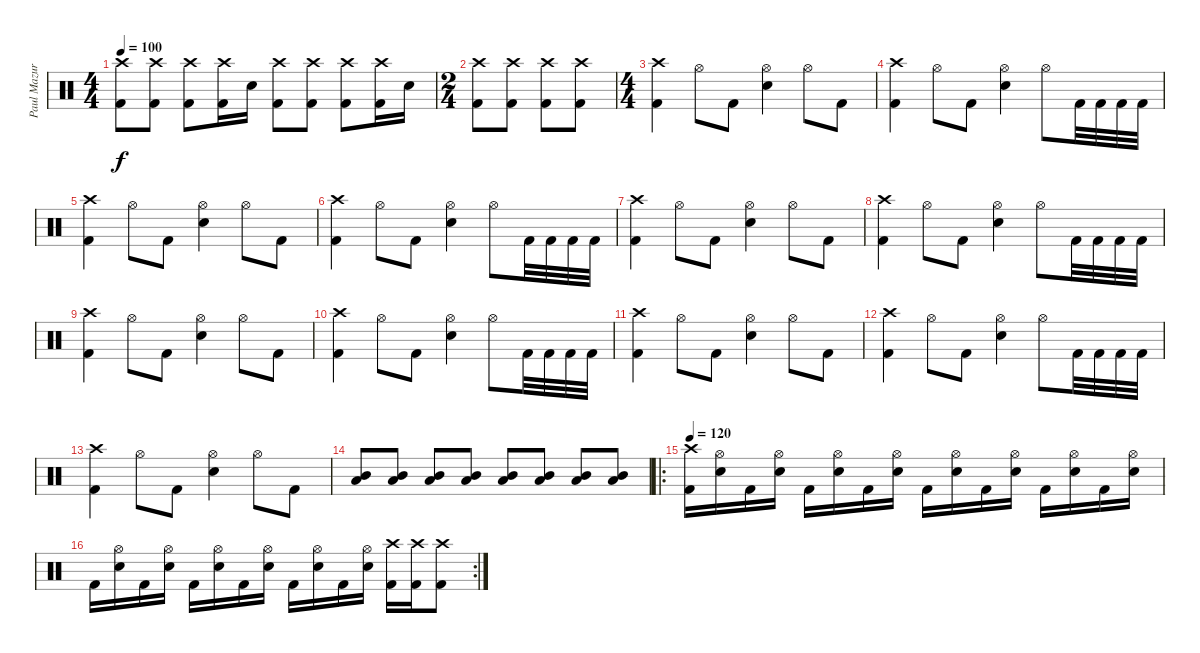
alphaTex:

\track ("Paul Mazurkievich" "Paul Mazur") {instrument percussion}
\staff {score}
\articulation defaults
\ts (4 4)
\tempo 100
\clef neutral
\ks c
("Crash high (hit)" "Kick (hit) 2").8{dy f} ("Crash high (hit)" "Kick (hit) 2").8 ("Crash high (hit)" "Kick (hit) 2").8 ("Crash high (hit)" "Kick (hit) 2").16 "Electric Snare (hit)".16 ("Crash high (hit)" "Kick (hit) 2").8 ("Crash high (hit)" "Kick (hit) 2").8 ("Crash high (hit)" "Kick (hit) 2").8 ("Crash high (hit)" "Kick (hit) 2").16 "Electric Snare (hit)".16 |
\ts (2 4)
("Crash high (hit)" "Kick (hit) 2").8 ("Crash high (hit)" "Kick (hit) 2").8 ("Crash high (hit)" "Kick (hit) 2").8 ("Crash high (hit)" "Kick (hit) 2").8 |
\ts (4 4)
("Crash high (hit)" "Kick (hit) 2").4 "Hi-Hat (open)".8 "Kick (hit) 2".8 ("Hi-Hat (open)" "Electric Snare (hit)").4 "Hi-Hat (open)".8 "Kick (hit) 2".8 |
("Crash high (hit)" "Kick (hit) 2").4 "Hi-Hat (open)".8 "Kick (hit) 2".8 ("Hi-Hat (open)" "Electric Snare (hit)").4 "Hi-Hat (open)".8 "Kick (hit) 2".32 "Kick (hit) 2".32 "Kick (hit) 2".32 "Kick (hit) 2".32 |
("Crash high (hit)" "Kick (hit) 2").4 "Hi-Hat (open)".8 "Kick (hit) 2".8 ("Hi-Hat (open)" "Electric Snare (hit)").4 "Hi-Hat (open)".8 "Kick (hit) 2".8 |
("Crash high (hit)" "Kick (hit) 2").4 "Hi-Hat (open)".8 "Kick (hit) 2".8 ("Hi-Hat (open)" "Electric Snare (hit)").4 "Hi-Hat (open)".8 "Kick (hit) 2".32 "Kick (hit) 2".32 "Kick (hit) 2".32 "Kick (hit) 2".32 |
("Crash high (hit)" "Kick (hit) 2").4 "Hi-Hat (open)".8 "Kick (hit) 2".8 ("Hi-Hat (open)" "Electric Snare (hit)").4 "Hi-Hat (open)".8 "Kick (hit) 2".8 |
("Crash high (hit)" "Kick (hit) 2").4 "Hi-Hat (open)".8 "Kick (hit) 2".8 ("Hi-Hat (open)" "Electric Snare (hit)").4 "Hi-Hat (open)".8 "Kick (hit) 2".32 "Kick (hit) 2".32 "Kick (hit) 2".32 "Kick (hit) 2".32 |
("Crash high (hit)" "Kick (hit) 2").4 "Hi-Hat (open)".8 "Kick (hit) 2".8 ("Hi-Hat (open)" "Electric Snare (hit)").4 "Hi-Hat (open)".8 "Kick (hit) 2".8 |
("Crash high (hit)" "Kick (hit) 2").4 "Hi-Hat (open)".8 "Kick (hit) 2".8 ("Hi-Hat (open)" "Electric Snare (hit)").4 "Hi-Hat (open)".8 "Kick (hit) 2".32 "Kick (hit) 2".32 "Kick (hit) 2".32 "Kick (hit) 2".32 |
("Crash high (hit)" "Kick (hit) 2").4 "Hi-Hat (open)".8 "Kick (hit) 2".8 ("Hi-Hat (open)" "Electric Snare (hit)").4 "Hi-Hat (open)".8 "Kick (hit) 2".8 |
("Crash high (hit)" "Kick (hit) 2").4 "Hi-Hat (open)".8 "Kick (hit) 2".8 ("Hi-Hat (open)" "Electric Snare (hit)").4 "Hi-Hat (open)".8 "Kick (hit) 2".32 "Kick (hit) 2".32 "Kick (hit) 2".32 "Kick (hit) 2".32 |
("Crash high (hit)" "Kick (hit) 2").4 "Hi-Hat (open)".8 "Kick (hit) 2".8 ("Hi-Hat (open)" "Electric Snare (hit)").4 "Hi-Hat (open)".8 "Kick (hit) 2".8 |
("Low Tom (hit)" "Mid Tom (hit)").8 ("Low Tom (hit)" "Mid Tom (hit)").8 ("Low Tom (hit)" "Mid Tom (hit)").8 ("Low Tom (hit)" "Mid Tom (hit)").8 ("Low Tom (hit)" "Mid Tom (hit)").8 ("Low Tom (hit)" "Mid Tom (hit)").8 ("Low Tom (hit)" "Mid Tom (hit)").8 ("Low Tom (hit)" "Mid Tom (hit)").8 |
\ro
\tempo 120
("Kick (hit) 2" "Crash high (hit)").16 ("Electric Snare (hit)" "Hi-Hat (open)").16 "Kick (hit) 2".16 ("Electric Snare (hit)" "Hi-Hat (open)").16 "Kick (hit) 2".16 ("Electric Snare (hit)" "Hi-Hat (open)").16 "Kick (hit) 2".16 ("Electric Snare (hit)" "Hi-Hat (open)").16 "Kick (hit) 2".16 ("Electric Snare (hit)" "Hi-Hat (open)").16 "Kick (hit) 2".16 ("Electric Snare (hit)" "Hi-Hat (open)").16 "Kick (hit) 2".16 ("Electric Snare (hit)" "Hi-Hat (open)").16 "Kick (hit) 2".16 ("Electric Snare (hit)" "Hi-Hat (open)").16 |
\rc 2 "Kick (hit) 2".16
("Electric Snare (hit)" "Hi-Hat (open)").16 "Kick (hit) 2".16 ("Electric Snare (hit)" "Hi-Hat (open)").16 "Kick (hit) 2".16 ("Electric Snare (hit)" "Hi-Hat (open)").16 "Kick (hit) 2".16 ("Electric Snare (hit)" "Hi-Hat (open)").16 "Kick (hit) 2".16 ("Electric Snare (hit)" "Hi-Hat (open)").16 "Kick (hit) 2".16 ("Electric Snare (hit)" "Hi-Hat (open)").16 ("Kick (hit) 2" "Crash high (hit)").16 ("Kick (hit) 2" "Crash high (hit)").16 ("Kick (hit) 2" "Crash high (hit)").8
